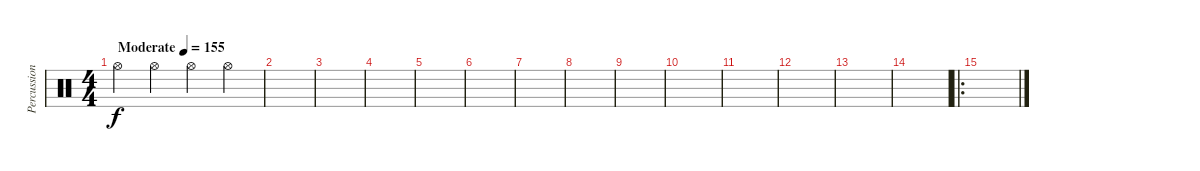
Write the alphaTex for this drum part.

\track ("Percussion" "Percussion") {instrument percussion}
\staff {score}
\articulation defaults
\ts (4 4)
\tempo (155 "Moderate")
\clef neutral
\ks c "Hi-Hat (open)".4{dy f} "Hi-Hat (open)".4 "Hi-Hat (open)".4 "Hi-Hat (open)".4
|
|
|
|
|
|
|
|
|
|
|
|
|
|
\ro
